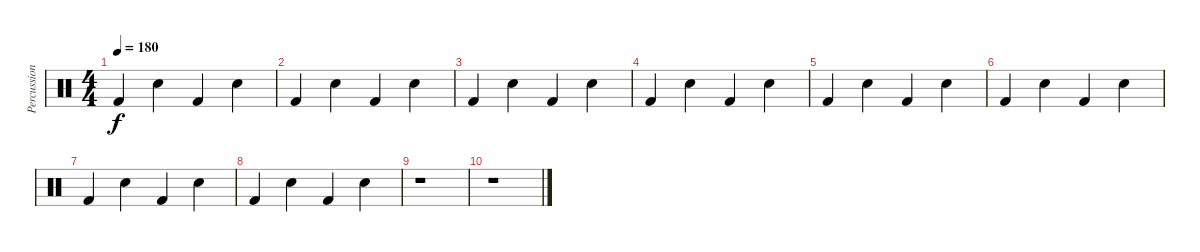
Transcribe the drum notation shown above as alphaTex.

\track ("Percussion" "Percussion") {instrument percussion}
\staff {score}
\articulation defaults
\ts (4 4)
\tempo 180
\clef neutral
\ks c "Kick (hit) 2".4{dy f} "Snare (hit) 2".4 "Kick (hit) 2".4 "Snare (hit) 2".4
|
"Kick (hit) 2".4 "Snare (hit) 2".4 "Kick (hit) 2".4 "Snare (hit) 2".4 |
"Kick (hit) 2".4 "Snare (hit) 2".4 "Kick (hit) 2".4 "Snare (hit) 2".4 |
"Kick (hit) 2".4 "Snare (hit) 2".4 "Kick (hit) 2".4 "Snare (hit) 2".4 |
"Kick (hit) 2".4 "Snare (hit) 2".4 "Kick (hit) 2".4 "Snare (hit) 2".4 |
"Kick (hit) 2".4 "Snare (hit) 2".4 "Kick (hit) 2".4 "Snare (hit) 2".4 |
"Kick (hit) 2".4 "Snare (hit) 2".4 "Kick (hit) 2".4 "Snare (hit) 2".4 |
"Kick (hit) 2".4 "Snare (hit) 2".4 "Kick (hit) 2".4 "Snare (hit) 2".4 |
r.1 |
r.1
